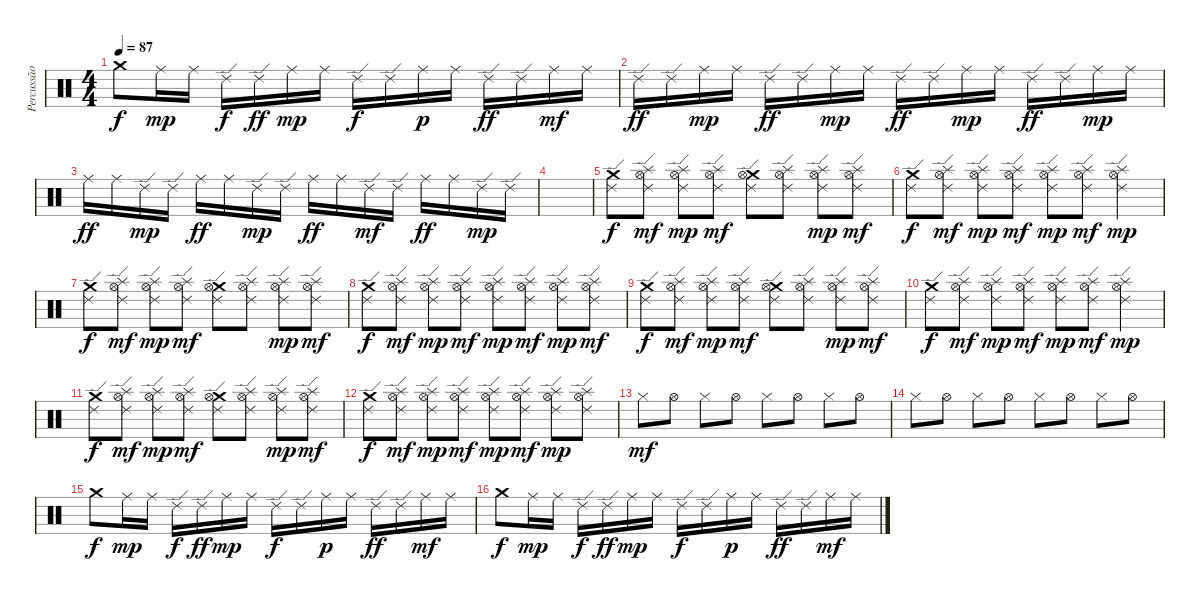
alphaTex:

\track ("Percussão" "Percussão") {instrument percussion}
\staff {score}
\articulation defaults
\ts (4 4)
\tempo 87
\clef neutral
\ks c "Crash medium (hit)".8{dy f} "Ride (middle)".16{dy mp} "Ride (middle)".16 "Ride (edge) 2".16{dy f} "Ride (edge) 2".16{dy ff} "Ride (middle)".16{dy mp} "Ride (middle)".16 "Ride (edge) 2".16{dy f} "Ride (edge) 2".16 "Ride (middle)".16{dy p} "Ride (middle)".16 "Ride (edge) 2".16{dy ff} "Ride (edge) 2".16 "Ride (middle)".16{dy mf} "Ride (middle)".16
|
"Ride (edge) 2".16{dy ff} "Ride (edge) 2".16 "Ride (middle)".16{dy mp} "Ride (middle)".16 "Ride (edge) 2".16{dy ff} "Ride (edge) 2".16 "Ride (middle)".16{dy mp} "Ride (middle)".16 "Ride (edge) 2".16{dy ff} "Ride (edge) 2".16 "Ride (middle)".16{dy mp} "Ride (middle)".16 "Ride (edge) 2".16{dy ff} "Ride (edge) 2".16 "Ride (middle)".16{dy mp} "Ride (middle)".16 |
"Ride (middle)".16{dy ff} "Ride (middle)".16 "Ride (edge) 2".16{dy mp} "Ride (edge) 2".16 "Ride (middle)".16{dy ff} "Ride (middle)".16 "Ride (edge) 2".16{dy mp} "Ride (edge) 2".16 "Ride (middle)".16{dy ff} "Ride (middle)".16 "Ride (edge) 2".16{dy mf} "Ride (edge) 2".16 "Ride (middle)".16{dy ff} "Ride (middle)".16 "Ride (edge) 2".16{dy mp} "Ride (edge) 2".16 |
|
("Crash medium (hit)" "Ride (edge) 2").8{dy f} ("Splash (hit)" "Hi-Hat (open)" "Ride (edge) 2").8{dy mf} ("Splash (hit)" "Hi-Hat (open)" "Ride (edge) 2").8{dy mp} ("Splash (hit)" "Hi-Hat (open)" "Ride (edge) 2").8{dy mf} ("Crash medium (hit)" "Hi-Hat (open)" "Ride (edge) 2").8 ("Splash (hit)" "Hi-Hat (open)" "Ride (edge) 2").8 ("Splash (hit)" "Hi-Hat (open)" "Ride (edge) 2").8{dy mp} ("Splash (hit)" "Hi-Hat (open)" "Ride (edge) 2").8{dy mf} |
("Crash medium (hit)" "Ride (edge) 2").8{dy f} ("Splash (hit)" "Hi-Hat (open)" "Ride (edge) 2").8{dy mf} ("Splash (hit)" "Hi-Hat (open)" "Ride (edge) 2").8{dy mp} ("Splash (hit)" "Hi-Hat (open)" "Ride (edge) 2").8{dy mf} ("Splash (hit)" "Hi-Hat (open)" "Ride (edge) 2").8{dy mp} ("Splash (hit)" "Hi-Hat (open)" "Ride (edge) 2").8{dy mf} ("Splash (hit)" "Hi-Hat (open)" "Ride (edge) 2").4{dy mp} |
("Crash medium (hit)" "Ride (edge) 2").8{dy f} ("Splash (hit)" "Hi-Hat (open)" "Ride (edge) 2").8{dy mf} ("Splash (hit)" "Hi-Hat (open)" "Ride (edge) 2").8{dy mp} ("Splash (hit)" "Hi-Hat (open)" "Ride (edge) 2").8{dy mf} ("Crash medium (hit)" "Hi-Hat (open)" "Ride (edge) 2").8 ("Splash (hit)" "Hi-Hat (open)" "Ride (edge) 2").8 ("Splash (hit)" "Hi-Hat (open)" "Ride (edge) 2").8{dy mp} ("Splash (hit)" "Hi-Hat (open)" "Ride (edge) 2").8{dy mf} |
("Crash medium (hit)" "Ride (edge) 2").8{dy f} ("Splash (hit)" "Hi-Hat (open)" "Ride (edge) 2").8{dy mf} ("Splash (hit)" "Hi-Hat (open)" "Ride (edge) 2").8{dy mp} ("Splash (hit)" "Hi-Hat (open)" "Ride (edge) 2").8{dy mf} ("Splash (hit)" "Hi-Hat (open)" "Ride (edge) 2").8{dy mp} ("Splash (hit)" "Hi-Hat (open)" "Ride (edge) 2").8{dy mf} ("Splash (hit)" "Hi-Hat (open)" "Ride (edge) 2").8{dy mp} ("Splash (hit)" "Hi-Hat (open)" "Ride (edge) 2").8{dy mf} |
("Crash medium (hit)" "Ride (edge) 2").8{dy f} ("Splash (hit)" "Hi-Hat (open)" "Ride (edge) 2").8{dy mf} ("Splash (hit)" "Hi-Hat (open)" "Ride (edge) 2").8{dy mp} ("Splash (hit)" "Hi-Hat (open)" "Ride (edge) 2").8{dy mf} ("Crash medium (hit)" "Hi-Hat (open)" "Ride (edge) 2").8 ("Splash (hit)" "Hi-Hat (open)" "Ride (edge) 2").8 ("Splash (hit)" "Hi-Hat (open)" "Ride (edge) 2").8{dy mp} ("Splash (hit)" "Hi-Hat (open)" "Ride (edge) 2").8{dy mf} |
("Crash medium (hit)" "Ride (edge) 2").8{dy f} ("Splash (hit)" "Hi-Hat (open)" "Ride (edge) 2").8{dy mf} ("Splash (hit)" "Hi-Hat (open)" "Ride (edge) 2").8{dy mp} ("Splash (hit)" "Hi-Hat (open)" "Ride (edge) 2").8{dy mf} ("Splash (hit)" "Hi-Hat (open)" "Ride (edge) 2").8{dy mp} ("Splash (hit)" "Hi-Hat (open)" "Ride (edge) 2").8{dy mf} ("Splash (hit)" "Hi-Hat (open)" "Ride (edge) 2").4{dy mp} |
("Crash medium (hit)" "Ride (edge) 2").8{dy f} ("Splash (hit)" "Hi-Hat (open)" "Ride (edge) 2").8{dy mf} ("Splash (hit)" "Hi-Hat (open)" "Ride (edge) 2").8{dy mp} ("Splash (hit)" "Hi-Hat (open)" "Ride (edge) 2").8{dy mf} ("Crash medium (hit)" "Hi-Hat (open)" "Ride (edge) 2").8 ("Splash (hit)" "Hi-Hat (open)" "Ride (edge) 2").8 ("Splash (hit)" "Hi-Hat (open)" "Ride (edge) 2").8{dy mp} ("Splash (hit)" "Hi-Hat (open)" "Ride (edge) 2").8{dy mf} |
("Crash medium (hit)" "Ride (edge) 2").8{dy f} ("Splash (hit)" "Hi-Hat (open)" "Ride (edge) 2").8{dy mf} ("Splash (hit)" "Hi-Hat (open)" "Ride (edge) 2").8{dy mp} ("Splash (hit)" "Hi-Hat (open)" "Ride (edge) 2").8{dy mf} ("Splash (hit)" "Hi-Hat (open)" "Ride (edge) 2").8{dy mp} ("Splash (hit)" "Hi-Hat (open)" "Ride (edge) 2").8{dy mf} ("Splash (hit)" "Hi-Hat (open)" "Ride (edge) 2").8{dy mp} ("Splash (hit)" "Hi-Hat (open)" "Ride (edge) 2").8 |
"Hi-Hat (closed)".8{dy mf} "Hi-Hat (open)".8 "Hi-Hat (closed)".8 "Hi-Hat (open)".8 "Hi-Hat (closed)".8 "Hi-Hat (open)".8 "Hi-Hat (closed)".8 "Hi-Hat (open)".8 |
"Hi-Hat (closed)".8 "Hi-Hat (open)".8 "Hi-Hat (closed)".8 "Hi-Hat (open)".8 "Hi-Hat (closed)".8 "Hi-Hat (open)".8 "Hi-Hat (closed)".8 "Hi-Hat (open)".8 |
"Crash medium (hit)".8{dy f} "Ride (middle)".16{dy mp} "Ride (middle)".16 "Ride (edge) 2".16{dy f} "Ride (edge) 2".16{dy ff} "Ride (middle)".16{dy mp} "Ride (middle)".16 "Ride (edge) 2".16{dy f} "Ride (edge) 2".16 "Ride (middle)".16{dy p} "Ride (middle)".16 "Ride (edge) 2".16{dy ff} "Ride (edge) 2".16 "Ride (middle)".16{dy mf} "Ride (middle)".16 |
"Crash medium (hit)".8{dy f} "Ride (middle)".16{dy mp} "Ride (middle)".16 "Ride (edge) 2".16{dy f} "Ride (edge) 2".16{dy ff} "Ride (middle)".16{dy mp} "Ride (middle)".16 "Ride (edge) 2".16{dy f} "Ride (edge) 2".16 "Ride (middle)".16{dy p} "Ride (middle)".16 "Ride (edge) 2".16{dy ff} "Ride (edge) 2".16 "Ride (middle)".16{dy mf} "Ride (middle)".16
